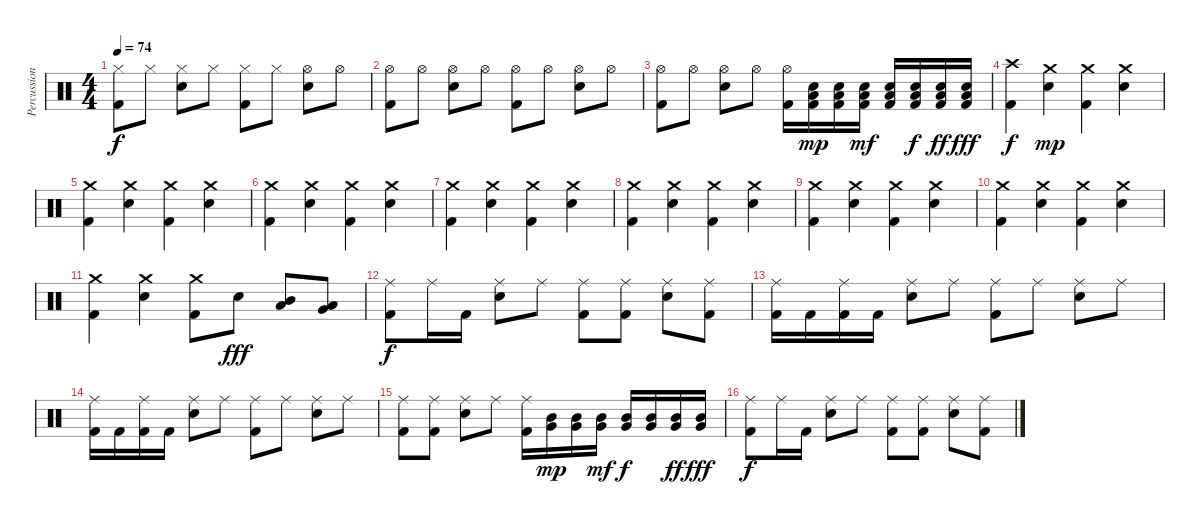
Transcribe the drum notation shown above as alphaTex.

\track ("Percussions" "Percussion") {instrument percussion}
\staff {score}
\articulation defaults
\ts (4 4)
\tempo 74
\clef neutral
\ks c
("Hi-Hat (closed)" "Kick (hit) 2").8{dy f} "Hi-Hat (closed)".8 ("Hi-Hat (closed)" "Electric Snare (hit)").8 "Hi-Hat (closed)".8 ("Hi-Hat (closed)" "Kick (hit) 2").8 "Hi-Hat (closed)".8 ("Hi-Hat (open)" "Electric Snare (hit)").8 "Hi-Hat (open)".8 |
("Hi-Hat (open)" "Kick (hit) 2").8 "Hi-Hat (open)".8 ("Hi-Hat (open)" "Electric Snare (hit)").8 "Hi-Hat (open)".8 ("Hi-Hat (open)" "Kick (hit) 2").8 "Hi-Hat (open)".8 ("Hi-Hat (open)" "Electric Snare (hit)").8 "Hi-Hat (open)".8 |
("Hi-Hat (open)" "Kick (hit) 2").8 "Hi-Hat (open)".8 ("Hi-Hat (open)" "Electric Snare (hit)").8 "Hi-Hat (open)".8 ("Hi-Hat (open)" "Kick (hit) 2").16 ("Kick (hit) 2" "Electric Snare (hit)" "Low Floor Tom (hit)").16{dy mp} ("Kick (hit) 2" "Electric Snare (hit)" "Low Floor Tom (hit)").16 ("Kick (hit) 2" "Electric Snare (hit)" "Low Floor Tom (hit)").16{dy mf} ("Kick (hit) 2" "Electric Snare (hit)" "Low Floor Tom (hit)").16 ("Kick (hit) 2" "Electric Snare (hit)" "Low Floor Tom (hit)").16{dy f} ("Kick (hit) 2" "Electric Snare (hit)" "Low Floor Tom (hit)").16{dy ff} ("Kick (hit) 2" "Electric Snare (hit)" "Low Floor Tom (hit)").16{dy fff} |
("Crash high (hit)" "Kick (hit) 2").4{dy f} ("Crash medium (hit)" "Electric Snare (hit)").4{dy mp} ("Crash medium (hit)" "Kick (hit) 2").4 ("Crash medium (hit)" "Electric Snare (hit)").4 |
("Crash medium (hit)" "Kick (hit) 2").4 ("Crash medium (hit)" "Electric Snare (hit)").4 ("Crash medium (hit)" "Kick (hit) 2").4 ("Crash medium (hit)" "Electric Snare (hit)").4 |
("Crash medium (hit)" "Kick (hit) 2").4 ("Crash medium (hit)" "Electric Snare (hit)").4 ("Crash medium (hit)" "Kick (hit) 2").4 ("Crash medium (hit)" "Electric Snare (hit)").4 |
("Crash medium (hit)" "Kick (hit) 2").4 ("Crash medium (hit)" "Electric Snare (hit)").4 ("Crash medium (hit)" "Kick (hit) 2").4 ("Crash medium (hit)" "Electric Snare (hit)").4 |
("Crash medium (hit)" "Kick (hit) 2").4 ("Crash medium (hit)" "Electric Snare (hit)").4 ("Crash medium (hit)" "Kick (hit) 2").4 ("Crash medium (hit)" "Electric Snare (hit)").4 |
("Crash medium (hit)" "Kick (hit) 2").4 ("Crash medium (hit)" "Electric Snare (hit)").4 ("Crash medium (hit)" "Kick (hit) 2").4 ("Crash medium (hit)" "Electric Snare (hit)").4 |
("Crash medium (hit)" "Kick (hit) 2").4 ("Crash medium (hit)" "Electric Snare (hit)").4 ("Crash medium (hit)" "Kick (hit) 2").4 ("Crash medium (hit)" "Electric Snare (hit)").4 |
("Crash medium (hit)" "Kick (hit) 2").4 ("Crash medium (hit)" "Electric Snare (hit)").4 ("Crash medium (hit)" "Kick (hit) 2").8 "Electric Snare (hit)".8{dy fff} ("Low Tom (hit)" "Mid Tom (hit)").8 ("Very Low Tom (hit)" "Low Floor Tom (hit)").8 |
("Ride (middle)" "Kick (hit) 2").8{dy f} "Ride (middle)".16 "Kick (hit) 2".16 ("Ride (middle)" "Electric Snare (hit)").8 "Ride (middle)".8 ("Ride (middle)" "Kick (hit) 2").8 ("Ride (middle)" "Kick (hit) 2").8 ("Ride (middle)" "Electric Snare (hit)").8 ("Ride (middle)" "Kick (hit) 2").8 |
("Ride (middle)" "Kick (hit) 2").16 "Kick (hit) 2".16 ("Ride (middle)" "Kick (hit) 2").16 "Kick (hit) 2".16 ("Ride (middle)" "Electric Snare (hit)").8 "Ride (middle)".8 ("Ride (middle)" "Kick (hit) 2").8 "Ride (middle)".8 ("Ride (middle)" "Electric Snare (hit)").8 "Ride (middle)".8 |
("Ride (middle)" "Kick (hit) 2").16 "Kick (hit) 2".16 ("Ride (middle)" "Kick (hit) 2").16 "Kick (hit) 2".16 ("Ride (middle)" "Electric Snare (hit)").8 "Ride (middle)".8 ("Ride (middle)" "Kick (hit) 2").8 "Ride (middle)".8 ("Ride (middle)" "Electric Snare (hit)").8 "Ride (middle)".8 |
("Ride (middle)" "Kick (hit) 2").8 ("Ride (middle)" "Kick (hit) 2").8 ("Ride (middle)" "Electric Snare (hit)").8 "Ride (middle)".8 ("Ride (middle)" "Kick (hit) 2").16 ("Very Low Tom (hit)" "Mid Tom (hit)").16{dy mp} ("Very Low Tom (hit)" "Mid Tom (hit)").16 ("Very Low Tom (hit)" "Mid Tom (hit)").16{dy mf} ("Very Low Tom (hit)" "Mid Tom (hit)").16{dy f} ("Very Low Tom (hit)" "Mid Tom (hit)").16 ("Very Low Tom (hit)" "Mid Tom (hit)").16{dy ff} ("Very Low Tom (hit)" "Mid Tom (hit)").16{dy fff} |
("Ride (middle)" "Kick (hit) 2").8{dy f} "Ride (middle)".16 "Kick (hit) 2".16 ("Ride (middle)" "Electric Snare (hit)").8 "Ride (middle)".8 ("Ride (middle)" "Kick (hit) 2").8 ("Ride (middle)" "Kick (hit) 2").8 ("Ride (middle)" "Electric Snare (hit)").8 ("Ride (middle)" "Kick (hit) 2").8
